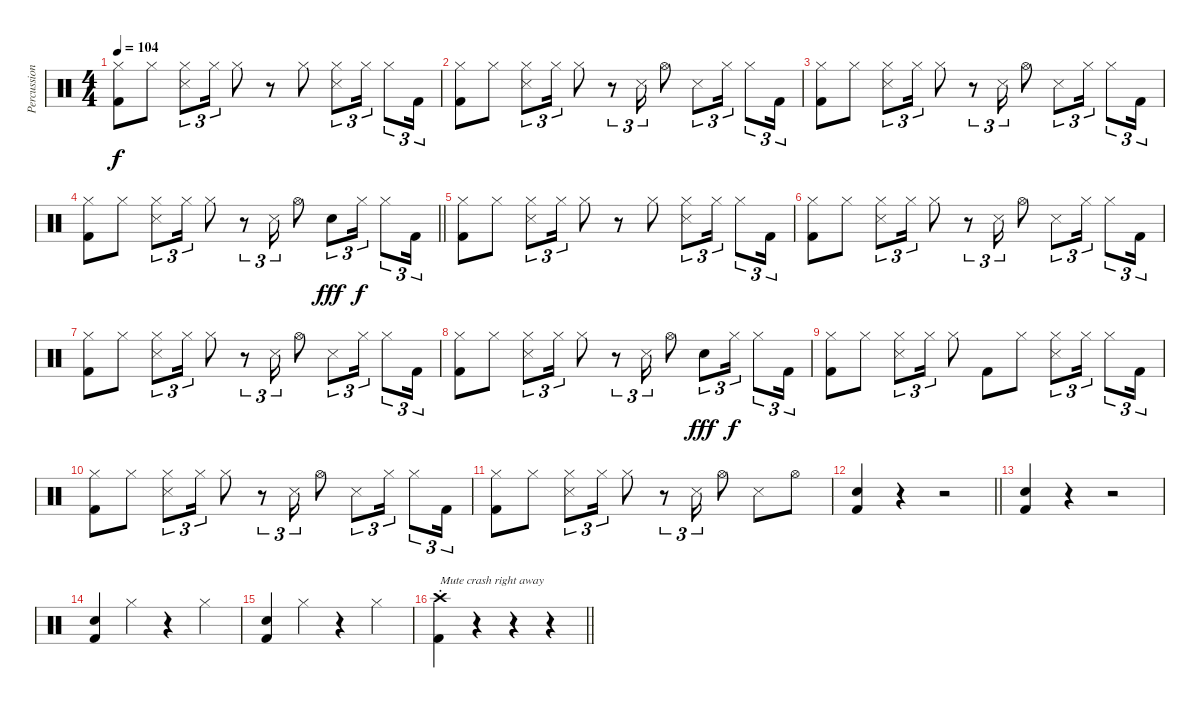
\track ("Percussion" "Percussion") {instrument percussion}
\staff {score}
\articulation defaults
\ts (4 4)
\tempo 104
\clef neutral
\ks c
("Hi-Hat (closed)" "Kick (hit) 2").8{dy f} "Hi-Hat (closed)".8 ("Hi-Hat (closed)" "Snare (side stick) 3").8{tu (3 2)} "Hi-Hat (closed)".16{tu (3 2)} "Hi-Hat (closed)".8 r.8 "Hi-Hat (closed)".8 ("Hi-Hat (closed)" "Snare (side stick) 3").8{tu (3 2)} "Hi-Hat (closed)".16{tu (3 2)} "Hi-Hat (closed)".8{tu (3 2)} "Kick (hit) 2".16{tu (3 2)} |
("Hi-Hat (closed)" "Kick (hit) 2").8 "Hi-Hat (closed)".8 ("Hi-Hat (closed)" "Snare (side stick) 3").8{tu (3 2)} "Hi-Hat (closed)".16{tu (3 2)} "Hi-Hat (closed)".8 r.8{tu (3 2)} "Snare (side stick) 3".16{tu (3 2)} "Hi-Hat (open)".8 "Snare (side stick) 3".8{tu (3 2)} "Hi-Hat (closed)".16{tu (3 2)} "Hi-Hat (closed)".8{tu (3 2)} "Kick (hit) 2".16{tu (3 2)} |
("Hi-Hat (closed)" "Kick (hit) 2").8 "Hi-Hat (closed)".8 ("Hi-Hat (closed)" "Snare (side stick) 3").8{tu (3 2)} "Hi-Hat (closed)".16{tu (3 2)} "Hi-Hat (closed)".8 r.8{tu (3 2)} "Snare (side stick) 3".16{tu (3 2)} "Hi-Hat (open)".8 "Snare (side stick) 3".8{tu (3 2)} "Hi-Hat (closed)".16{tu (3 2)} "Hi-Hat (closed)".8{tu (3 2)} "Kick (hit) 2".16{tu (3 2)} |
\barLineRight lightlight
("Hi-Hat (closed)" "Kick (hit) 2").8 "Hi-Hat (closed)".8 ("Hi-Hat (closed)" "Snare (side stick) 3").8{tu (3 2)} "Hi-Hat (closed)".16{tu (3 2)} "Hi-Hat (closed)".8 r.8{tu (3 2)} "Snare (side stick) 3".16{tu (3 2)} "Hi-Hat (open)".8 "Electric Snare (hit)".8{tu (3 2) dy fff} "Hi-Hat (closed)".16{tu (3 2) dy f} "Hi-Hat (closed)".8{tu (3 2)} "Kick (hit) 2".16{tu (3 2)} |
("Hi-Hat (closed)" "Kick (hit) 2").8 "Hi-Hat (closed)".8 ("Hi-Hat (closed)" "Snare (side stick) 3").8{tu (3 2)} "Hi-Hat (closed)".16{tu (3 2)} "Hi-Hat (closed)".8 r.8 "Hi-Hat (closed)".8 ("Hi-Hat (closed)" "Snare (side stick) 3").8{tu (3 2)} "Hi-Hat (closed)".16{tu (3 2)} "Hi-Hat (closed)".8{tu (3 2)} "Kick (hit) 2".16{tu (3 2)} |
("Hi-Hat (closed)" "Kick (hit) 2").8 "Hi-Hat (closed)".8 ("Hi-Hat (closed)" "Snare (side stick) 3").8{tu (3 2)} "Hi-Hat (closed)".16{tu (3 2)} "Hi-Hat (closed)".8 r.8{tu (3 2)} "Snare (side stick) 3".16{tu (3 2)} "Hi-Hat (open)".8 "Snare (side stick) 3".8{tu (3 2)} "Hi-Hat (closed)".16{tu (3 2)} "Hi-Hat (closed)".8{tu (3 2)} "Kick (hit) 2".16{tu (3 2)} |
("Hi-Hat (closed)" "Kick (hit) 2").8 "Hi-Hat (closed)".8 ("Hi-Hat (closed)" "Snare (side stick) 3").8{tu (3 2)} "Hi-Hat (closed)".16{tu (3 2)} "Hi-Hat (closed)".8 r.8{tu (3 2)} "Snare (side stick) 3".16{tu (3 2)} "Hi-Hat (open)".8 "Snare (side stick) 3".8{tu (3 2)} "Hi-Hat (closed)".16{tu (3 2)} "Hi-Hat (closed)".8{tu (3 2)} "Kick (hit) 2".16{tu (3 2)} |
("Hi-Hat (closed)" "Kick (hit) 2").8 "Hi-Hat (closed)".8 ("Hi-Hat (closed)" "Snare (side stick) 3").8{tu (3 2)} "Hi-Hat (closed)".16{tu (3 2)} "Hi-Hat (closed)".8 r.8{tu (3 2)} "Snare (side stick) 3".16{tu (3 2)} "Hi-Hat (open)".8 "Electric Snare (hit)".8{tu (3 2) dy fff} "Hi-Hat (closed)".16{tu (3 2) dy f} "Hi-Hat (closed)".8{tu (3 2)} "Kick (hit) 2".16{tu (3 2)} |
("Hi-Hat (closed)" "Kick (hit) 2").8 "Hi-Hat (closed)".8 ("Hi-Hat (closed)" "Snare (side stick) 3").8{tu (3 2)} "Hi-Hat (closed)".16{tu (3 2)} "Hi-Hat (closed)".8 "Kick (hit) 2".8 "Hi-Hat (closed)".8 ("Hi-Hat (closed)" "Snare (side stick) 3").8{tu (3 2)} "Hi-Hat (closed)".16{tu (3 2)} "Hi-Hat (closed)".8{tu (3 2)} "Kick (hit) 2".16{tu (3 2)} |
("Hi-Hat (closed)" "Kick (hit) 2").8 "Hi-Hat (closed)".8 ("Hi-Hat (closed)" "Snare (side stick) 3").8{tu (3 2)} "Hi-Hat (closed)".16{tu (3 2)} "Hi-Hat (closed)".8 r.8{tu (3 2)} "Snare (side stick) 3".16{tu (3 2)} "Hi-Hat (open)".8 "Snare (side stick) 3".8{tu (3 2)} "Hi-Hat (closed)".16{tu (3 2)} "Hi-Hat (closed)".8{tu (3 2)} "Kick (hit) 2".16{tu (3 2)} |
("Hi-Hat (closed)" "Kick (hit) 2").8 "Hi-Hat (closed)".8 ("Hi-Hat (closed)" "Snare (side stick) 3").8{tu (3 2)} "Hi-Hat (closed)".16{tu (3 2)} "Hi-Hat (closed)".8 r.8{tu (3 2)} "Snare (side stick) 3".16{tu (3 2)} "Hi-Hat (open)".8 "Snare (side stick) 3".8 "Hi-Hat (open)".8 |
\barLineRight lightlight
("Electric Snare (hit)" "Kick (hit) 2").4 r.4 r.2 |
("Snare (hit) 2" "Kick (hit) 2").4 r.4 r.2 |
("Snare (hit) 2" "Kick (hit) 2").4 "Hi-Hat (closed)".4 r.4 "Hi-Hat (closed)".4 |
("Snare (hit) 2" "Kick (hit) 2").4 "Hi-Hat (closed)".4 r.4 "Hi-Hat (closed)".4 |
\barLineRight lightlight
("Crash high (hit)"{st} "Kick (hit) 2").4{txt "Mute crash right away"} r.4 r.4 r.4
